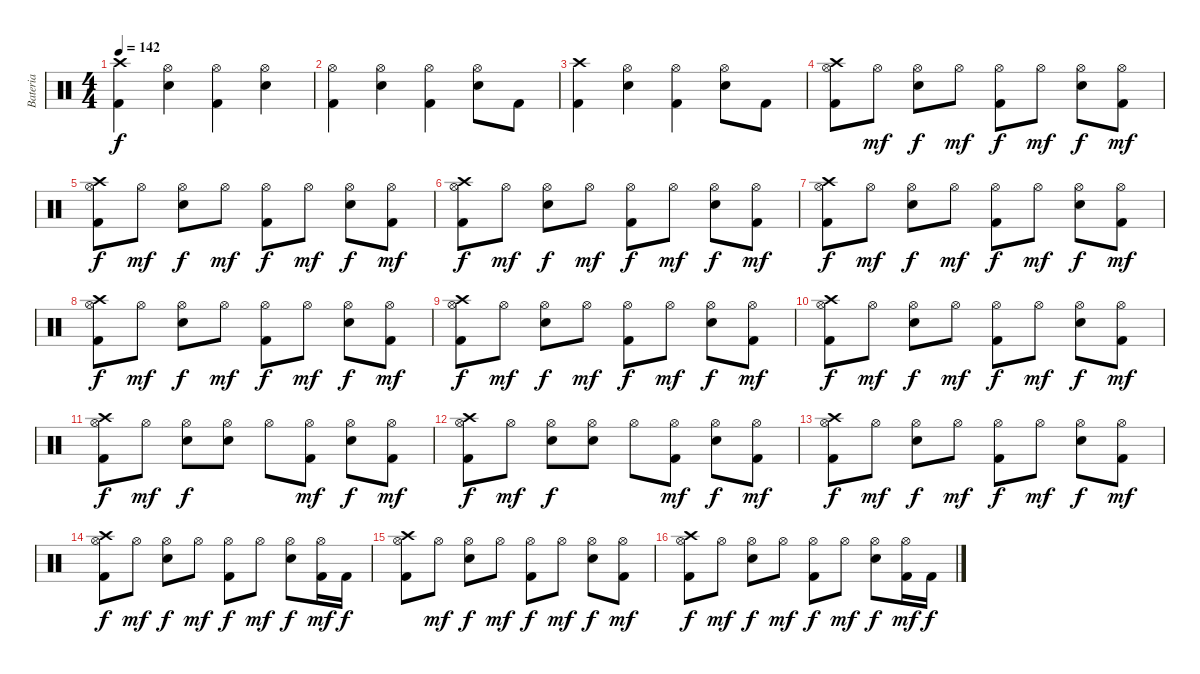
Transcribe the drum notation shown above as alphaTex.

\track ("Bateria" "Bateria") {instrument percussion}
\staff {score}
\articulation defaults
\ts (4 4)
\tempo 142
\clef neutral
\ks c
("Crash high (hit)" "Kick (hit) 2").4{dy f} ("Electric Snare (hit)" "Hi-Hat (open)").4 ("Kick (hit) 2" "Hi-Hat (open)").4 ("Electric Snare (hit)" "Hi-Hat (open)").4 |
("Kick (hit) 2" "Hi-Hat (open)").4 ("Electric Snare (hit)" "Hi-Hat (open)").4 ("Kick (hit) 2" "Hi-Hat (open)").4 ("Electric Snare (hit)" "Hi-Hat (open)").8 "Kick (hit) 2".8 |
("Crash high (hit)" "Kick (hit) 2").4 ("Electric Snare (hit)" "Hi-Hat (open)").4 ("Kick (hit) 2" "Hi-Hat (open)").4 ("Electric Snare (hit)" "Hi-Hat (open)").8 "Kick (hit) 2".8 |
("Crash high (hit)" "Kick (hit) 2" "Hi-Hat (open)").8 "Hi-Hat (open)".8{dy mf} ("Electric Snare (hit)" "Hi-Hat (open)").8{dy f} "Hi-Hat (open)".8{dy mf} ("Kick (hit) 2" "Hi-Hat (open)").8{dy f} "Hi-Hat (open)".8{dy mf} ("Electric Snare (hit)" "Hi-Hat (open)").8{dy f} ("Kick (hit) 2" "Hi-Hat (open)").8{dy mf} |
("Crash high (hit)" "Kick (hit) 2" "Hi-Hat (open)").8{dy f} "Hi-Hat (open)".8{dy mf} ("Electric Snare (hit)" "Hi-Hat (open)").8{dy f} "Hi-Hat (open)".8{dy mf} ("Kick (hit) 2" "Hi-Hat (open)").8{dy f} "Hi-Hat (open)".8{dy mf} ("Electric Snare (hit)" "Hi-Hat (open)").8{dy f} ("Kick (hit) 2" "Hi-Hat (open)").8{dy mf} |
("Crash high (hit)" "Kick (hit) 2" "Hi-Hat (open)").8{dy f} "Hi-Hat (open)".8{dy mf} ("Electric Snare (hit)" "Hi-Hat (open)").8{dy f} "Hi-Hat (open)".8{dy mf} ("Kick (hit) 2" "Hi-Hat (open)").8{dy f} "Hi-Hat (open)".8{dy mf} ("Electric Snare (hit)" "Hi-Hat (open)").8{dy f} ("Kick (hit) 2" "Hi-Hat (open)").8{dy mf} |
("Crash high (hit)" "Kick (hit) 2" "Hi-Hat (open)").8{dy f} "Hi-Hat (open)".8{dy mf} ("Electric Snare (hit)" "Hi-Hat (open)").8{dy f} "Hi-Hat (open)".8{dy mf} ("Kick (hit) 2" "Hi-Hat (open)").8{dy f} "Hi-Hat (open)".8{dy mf} ("Electric Snare (hit)" "Hi-Hat (open)").8{dy f} ("Kick (hit) 2" "Hi-Hat (open)").8{dy mf} |
("Crash high (hit)" "Kick (hit) 2" "Hi-Hat (open)").8{dy f} "Hi-Hat (open)".8{dy mf} ("Electric Snare (hit)" "Hi-Hat (open)").8{dy f} "Hi-Hat (open)".8{dy mf} ("Kick (hit) 2" "Hi-Hat (open)").8{dy f} "Hi-Hat (open)".8{dy mf} ("Electric Snare (hit)" "Hi-Hat (open)").8{dy f} ("Kick (hit) 2" "Hi-Hat (open)").8{dy mf} |
("Crash high (hit)" "Kick (hit) 2" "Hi-Hat (open)").8{dy f} "Hi-Hat (open)".8{dy mf} ("Electric Snare (hit)" "Hi-Hat (open)").8{dy f} "Hi-Hat (open)".8{dy mf} ("Kick (hit) 2" "Hi-Hat (open)").8{dy f} "Hi-Hat (open)".8{dy mf} ("Electric Snare (hit)" "Hi-Hat (open)").8{dy f} ("Kick (hit) 2" "Hi-Hat (open)").8{dy mf} |
("Crash high (hit)" "Kick (hit) 2" "Hi-Hat (open)").8{dy f} "Hi-Hat (open)".8{dy mf} ("Electric Snare (hit)" "Hi-Hat (open)").8{dy f} "Hi-Hat (open)".8{dy mf} ("Kick (hit) 2" "Hi-Hat (open)").8{dy f} "Hi-Hat (open)".8{dy mf} ("Electric Snare (hit)" "Hi-Hat (open)").8{dy f} ("Kick (hit) 2" "Hi-Hat (open)").8{dy mf} |
("Crash high (hit)" "Kick (hit) 2" "Hi-Hat (open)").8{dy f} "Hi-Hat (open)".8{dy mf} ("Electric Snare (hit)" "Hi-Hat (open)").8{dy f} ("Electric Snare (hit)" "Hi-Hat (open)").8 "Hi-Hat (open)".8 ("Kick (hit) 2" "Hi-Hat (open)").8{dy mf} ("Electric Snare (hit)" "Hi-Hat (open)").8{dy f} ("Kick (hit) 2" "Hi-Hat (open)").8{dy mf} |
("Crash high (hit)" "Kick (hit) 2" "Hi-Hat (open)").8{dy f} "Hi-Hat (open)".8{dy mf} ("Electric Snare (hit)" "Hi-Hat (open)").8{dy f} ("Electric Snare (hit)" "Hi-Hat (open)").8 "Hi-Hat (open)".8 ("Kick (hit) 2" "Hi-Hat (open)").8{dy mf} ("Electric Snare (hit)" "Hi-Hat (open)").8{dy f} ("Kick (hit) 2" "Hi-Hat (open)").8{dy mf} |
("Crash high (hit)" "Kick (hit) 2" "Hi-Hat (open)").8{dy f} "Hi-Hat (open)".8{dy mf} ("Electric Snare (hit)" "Hi-Hat (open)").8{dy f} "Hi-Hat (open)".8{dy mf} ("Kick (hit) 2" "Hi-Hat (open)").8{dy f} "Hi-Hat (open)".8{dy mf} ("Electric Snare (hit)" "Hi-Hat (open)").8{dy f} ("Kick (hit) 2" "Hi-Hat (open)").8{dy mf} |
("Crash high (hit)" "Kick (hit) 2" "Hi-Hat (open)").8{dy f} "Hi-Hat (open)".8{dy mf} ("Electric Snare (hit)" "Hi-Hat (open)").8{dy f} "Hi-Hat (open)".8{dy mf} ("Kick (hit) 2" "Hi-Hat (open)").8{dy f} "Hi-Hat (open)".8{dy mf} ("Electric Snare (hit)" "Hi-Hat (open)").8{dy f} ("Kick (hit) 2" "Hi-Hat (open)").16{dy mf} "Kick (hit) 2".16{dy f} |
("Crash high (hit)" "Kick (hit) 2" "Hi-Hat (open)").8 "Hi-Hat (open)".8{dy mf} ("Electric Snare (hit)" "Hi-Hat (open)").8{dy f} "Hi-Hat (open)".8{dy mf} ("Kick (hit) 2" "Hi-Hat (open)").8{dy f} "Hi-Hat (open)".8{dy mf} ("Electric Snare (hit)" "Hi-Hat (open)").8{dy f} ("Kick (hit) 2" "Hi-Hat (open)").8{dy mf} |
("Crash high (hit)" "Kick (hit) 2" "Hi-Hat (open)").8{dy f} "Hi-Hat (open)".8{dy mf} ("Electric Snare (hit)" "Hi-Hat (open)").8{dy f} "Hi-Hat (open)".8{dy mf} ("Kick (hit) 2" "Hi-Hat (open)").8{dy f} "Hi-Hat (open)".8{dy mf} ("Electric Snare (hit)" "Hi-Hat (open)").8{dy f} ("Kick (hit) 2" "Hi-Hat (open)").16{dy mf} "Kick (hit) 2".16{dy f}
